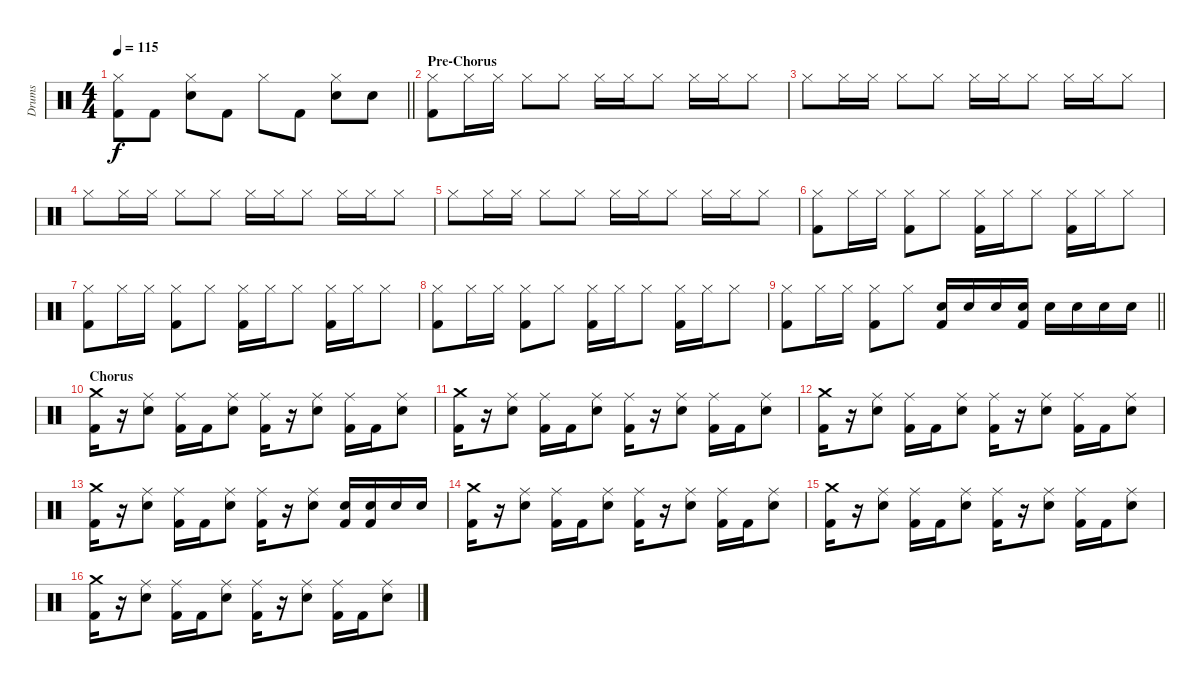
\track ("Drums" "Drums") {instrument percussion}
\staff {score}
\articulation defaults
\ts (4 4)
\tempo 115
\clef neutral
\barLineRight lightlight
\ks c
("Hi-Hat (closed)" "Kick (hit) 2").8{dy f} "Kick (hit) 2".8 ("Hi-Hat (closed)" "Electric Snare (hit)").8 "Kick (hit) 2".8 "Hi-Hat (closed)".8 "Kick (hit) 2".8 ("Hi-Hat (closed)" "Electric Snare (hit)").8 "Electric Snare (hit)".8 |
\section ("" "Pre-Chorus")
("Hi-Hat (closed)" "Kick (hit) 2").8 "Hi-Hat (closed)".16 "Hi-Hat (closed)".16 "Hi-Hat (closed)".8 "Hi-Hat (closed)".8 "Hi-Hat (closed)".16 "Hi-Hat (closed)".16 "Hi-Hat (closed)".8 "Hi-Hat (closed)".16 "Hi-Hat (closed)".16 "Hi-Hat (closed)".8 |
"Hi-Hat (closed)".8 "Hi-Hat (closed)".16 "Hi-Hat (closed)".16 "Hi-Hat (closed)".8 "Hi-Hat (closed)".8 "Hi-Hat (closed)".16 "Hi-Hat (closed)".16 "Hi-Hat (closed)".8 "Hi-Hat (closed)".16 "Hi-Hat (closed)".16 "Hi-Hat (closed)".8 |
"Hi-Hat (closed)".8 "Hi-Hat (closed)".16 "Hi-Hat (closed)".16 "Hi-Hat (closed)".8 "Hi-Hat (closed)".8 "Hi-Hat (closed)".16 "Hi-Hat (closed)".16 "Hi-Hat (closed)".8 "Hi-Hat (closed)".16 "Hi-Hat (closed)".16 "Hi-Hat (closed)".8 |
"Hi-Hat (closed)".8 "Hi-Hat (closed)".16 "Hi-Hat (closed)".16 "Hi-Hat (closed)".8 "Hi-Hat (closed)".8 "Hi-Hat (closed)".16 "Hi-Hat (closed)".16 "Hi-Hat (closed)".8 "Hi-Hat (closed)".16 "Hi-Hat (closed)".16 "Hi-Hat (closed)".8 |
("Hi-Hat (closed)" "Kick (hit) 2").8 "Hi-Hat (closed)".16 "Hi-Hat (closed)".16 ("Hi-Hat (closed)" "Kick (hit) 2").8 "Hi-Hat (closed)".8 ("Hi-Hat (closed)" "Kick (hit) 2").16 "Hi-Hat (closed)".16 "Hi-Hat (closed)".8 ("Hi-Hat (closed)" "Kick (hit) 2").16 "Hi-Hat (closed)".16 "Hi-Hat (closed)".8 |
("Hi-Hat (closed)" "Kick (hit) 2").8 "Hi-Hat (closed)".16 "Hi-Hat (closed)".16 ("Hi-Hat (closed)" "Kick (hit) 2").8 "Hi-Hat (closed)".8 ("Hi-Hat (closed)" "Kick (hit) 2").16 "Hi-Hat (closed)".16 "Hi-Hat (closed)".8 ("Hi-Hat (closed)" "Kick (hit) 2").16 "Hi-Hat (closed)".16 "Hi-Hat (closed)".8 |
("Hi-Hat (closed)" "Kick (hit) 2").8 "Hi-Hat (closed)".16 "Hi-Hat (closed)".16 ("Hi-Hat (closed)" "Kick (hit) 2").8 "Hi-Hat (closed)".8 ("Hi-Hat (closed)" "Kick (hit) 2").16 "Hi-Hat (closed)".16 "Hi-Hat (closed)".8 ("Hi-Hat (closed)" "Kick (hit) 2").16 "Hi-Hat (closed)".16 "Hi-Hat (closed)".8 |
\barLineRight lightlight
("Hi-Hat (closed)" "Kick (hit) 2").8 "Hi-Hat (closed)".16 "Hi-Hat (closed)".16 ("Hi-Hat (closed)" "Kick (hit) 2").8 "Hi-Hat (closed)".8 ("Electric Snare (hit)" "Kick (hit) 2").16 "Electric Snare (hit)".16 "Electric Snare (hit)".16 ("Electric Snare (hit)" "Kick (hit) 2").16 "Electric Snare (hit)".16 "Electric Snare (hit)".16 "Electric Snare (hit)".16 "Electric Snare (hit)".16 |
\section ("" "Chorus")
("Crash medium (hit)" "Kick (hit) 2").16 r.16 ("Ride (middle)" "Electric Snare (hit)").8 ("Ride (middle)" "Kick (hit) 2").16 "Kick (hit) 2".16 ("Ride (middle)" "Electric Snare (hit)").8 ("Ride (middle)" "Kick (hit) 2").16 r.16 ("Ride (middle)" "Electric Snare (hit)").8 ("Ride (middle)" "Kick (hit) 2").16 "Kick (hit) 2".16 ("Ride (middle)" "Electric Snare (hit)").8 |
("Crash medium (hit)" "Kick (hit) 2").16 r.16 ("Ride (middle)" "Electric Snare (hit)").8 ("Ride (middle)" "Kick (hit) 2").16 "Kick (hit) 2".16 ("Ride (middle)" "Electric Snare (hit)").8 ("Ride (middle)" "Kick (hit) 2").16 r.16 ("Ride (middle)" "Electric Snare (hit)").8 ("Ride (middle)" "Kick (hit) 2").16 "Kick (hit) 2".16 ("Ride (middle)" "Electric Snare (hit)").8 |
("Crash medium (hit)" "Kick (hit) 2").16 r.16 ("Ride (middle)" "Electric Snare (hit)").8 ("Ride (middle)" "Kick (hit) 2").16 "Kick (hit) 2".16 ("Ride (middle)" "Electric Snare (hit)").8 ("Ride (middle)" "Kick (hit) 2").16 r.16 ("Ride (middle)" "Electric Snare (hit)").8 ("Ride (middle)" "Kick (hit) 2").16 "Kick (hit) 2".16 ("Ride (middle)" "Electric Snare (hit)").8 |
("Crash medium (hit)" "Kick (hit) 2").16 r.16 ("Ride (middle)" "Electric Snare (hit)").8 ("Ride (middle)" "Kick (hit) 2").16 "Kick (hit) 2".16 ("Ride (middle)" "Electric Snare (hit)").8 ("Ride (middle)" "Kick (hit) 2").16 r.16 ("Ride (middle)" "Electric Snare (hit)").8 ("Electric Snare (hit)" "Kick (hit) 2").16 ("Electric Snare (hit)" "Kick (hit) 2").16 "Electric Snare (hit)".16 "Electric Snare (hit)".16 |
("Crash medium (hit)" "Kick (hit) 2").16 r.16 ("Ride (middle)" "Electric Snare (hit)").8 ("Ride (middle)" "Kick (hit) 2").16 "Kick (hit) 2".16 ("Ride (middle)" "Electric Snare (hit)").8 ("Ride (middle)" "Kick (hit) 2").16 r.16 ("Ride (middle)" "Electric Snare (hit)").8 ("Ride (middle)" "Kick (hit) 2").16 "Kick (hit) 2".16 ("Ride (middle)" "Electric Snare (hit)").8 |
("Crash medium (hit)" "Kick (hit) 2").16 r.16 ("Ride (middle)" "Electric Snare (hit)").8 ("Ride (middle)" "Kick (hit) 2").16 "Kick (hit) 2".16 ("Ride (middle)" "Electric Snare (hit)").8 ("Ride (middle)" "Kick (hit) 2").16 r.16 ("Ride (middle)" "Electric Snare (hit)").8 ("Ride (middle)" "Kick (hit) 2").16 "Kick (hit) 2".16 ("Ride (middle)" "Electric Snare (hit)").8 |
("Crash medium (hit)" "Kick (hit) 2").16 r.16 ("Ride (middle)" "Electric Snare (hit)").8 ("Ride (middle)" "Kick (hit) 2").16 "Kick (hit) 2".16 ("Ride (middle)" "Electric Snare (hit)").8 ("Ride (middle)" "Kick (hit) 2").16 r.16 ("Ride (middle)" "Electric Snare (hit)").8 ("Ride (middle)" "Kick (hit) 2").16 "Kick (hit) 2".16 ("Ride (middle)" "Electric Snare (hit)").8
